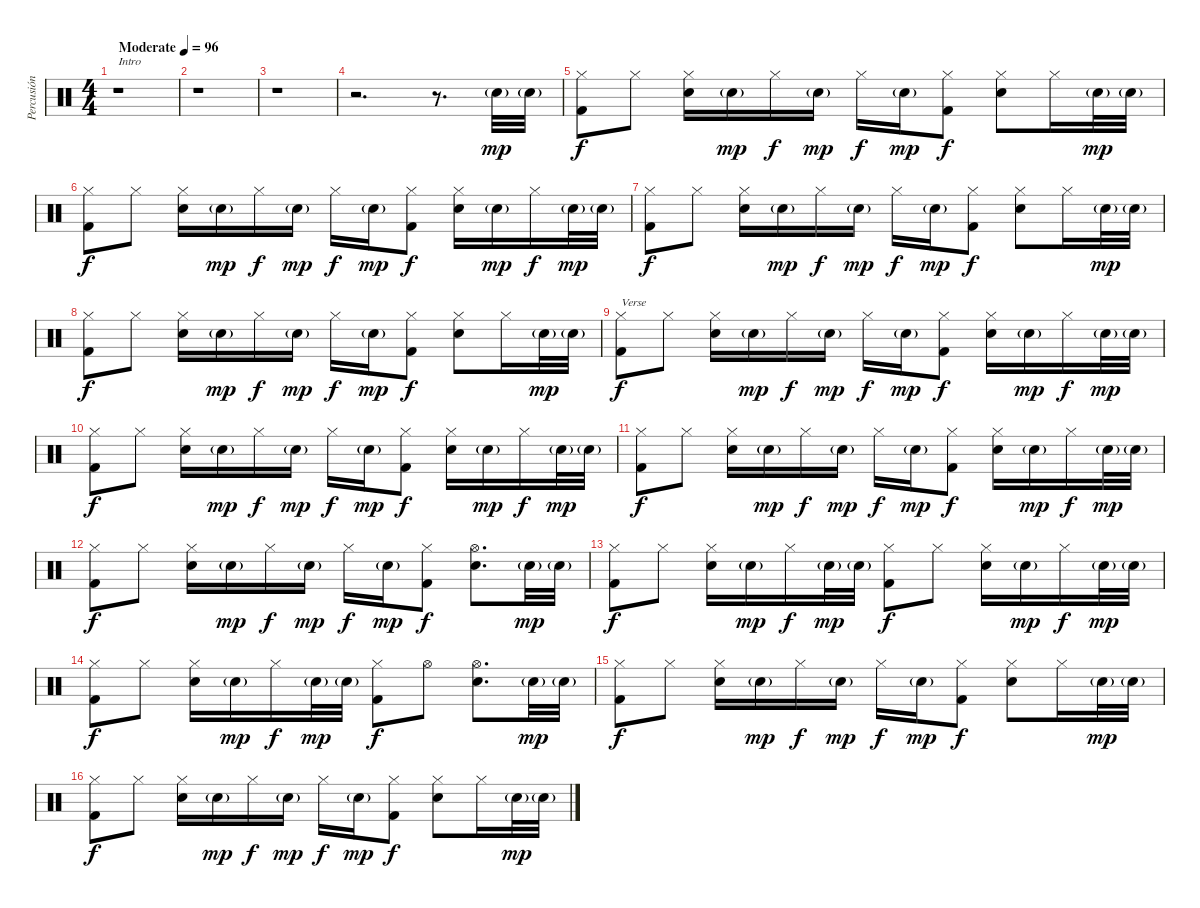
\track ("Percusión" "Percusión") {instrument percussion}
\staff {score}
\articulation defaults
\ts (4 4)
\tempo (96 "Moderate")
\clef neutral
\ks c
r.1{txt "Intro" dy mp} |
r.1 |
r.1 |
r.2{d} r.8{d} "Snare (hit) 2"{g}.32 "Snare (hit) 2"{g}.32 |
("Hi-Hat (closed)" "Kick (hit) 2").8{dy f} "Hi-Hat (closed)".8 ("Hi-Hat (closed)" "Snare (hit) 2").16 "Snare (hit) 2"{g}.16{dy mp} "Hi-Hat (closed)".16{dy f} "Snare (hit) 2"{g}.16{dy mp} "Hi-Hat (closed)".16{dy f} "Snare (hit) 2"{g}.16{dy mp} ("Hi-Hat (closed)" "Kick (hit) 2").8{dy f} ("Hi-Hat (closed)" "Snare (hit) 2").8 "Hi-Hat (closed)".16 "Snare (hit) 2"{g}.32{dy mp} "Snare (hit) 2"{g}.32 |
("Hi-Hat (closed)" "Kick (hit) 2").8{dy f} "Hi-Hat (closed)".8 ("Hi-Hat (closed)" "Snare (hit) 2").16 "Snare (hit) 2"{g}.16{dy mp} "Hi-Hat (closed)".16{dy f} "Snare (hit) 2"{g}.16{dy mp} "Hi-Hat (closed)".16{dy f} "Snare (hit) 2"{g}.16{dy mp} ("Hi-Hat (closed)" "Kick (hit) 2").8{dy f} ("Hi-Hat (closed)" "Snare (hit) 2").16 "Snare (hit) 2"{g}.16{dy mp} "Hi-Hat (closed)".16{dy f} "Snare (hit) 2"{g}.32{dy mp} "Snare (hit) 2"{g}.32 |
("Hi-Hat (closed)" "Kick (hit) 2").8{dy f} "Hi-Hat (closed)".8 ("Hi-Hat (closed)" "Snare (hit) 2").16 "Snare (hit) 2"{g}.16{dy mp} "Hi-Hat (closed)".16{dy f} "Snare (hit) 2"{g}.16{dy mp} "Hi-Hat (closed)".16{dy f} "Snare (hit) 2"{g}.16{dy mp} ("Hi-Hat (closed)" "Kick (hit) 2").8{dy f} ("Hi-Hat (closed)" "Snare (hit) 2").8 "Hi-Hat (closed)".16 "Snare (hit) 2"{g}.32{dy mp} "Snare (hit) 2"{g}.32 |
("Hi-Hat (closed)" "Kick (hit) 2").8{dy f} "Hi-Hat (closed)".8 ("Hi-Hat (closed)" "Snare (hit) 2").16 "Snare (hit) 2"{g}.16{dy mp} "Hi-Hat (closed)".16{dy f} "Snare (hit) 2"{g}.16{dy mp} "Hi-Hat (closed)".16{dy f} "Snare (hit) 2"{g}.16{dy mp} ("Hi-Hat (closed)" "Kick (hit) 2").8{dy f} ("Hi-Hat (closed)" "Snare (hit) 2").8 "Hi-Hat (closed)".16 "Snare (hit) 2"{g}.32{dy mp} "Snare (hit) 2"{g}.32 |
("Hi-Hat (closed)" "Kick (hit) 2").8{txt "Verse" dy f} "Hi-Hat (closed)".8 ("Hi-Hat (closed)" "Snare (hit) 2").16 "Snare (hit) 2"{g}.16{dy mp} "Hi-Hat (closed)".16{dy f} "Snare (hit) 2"{g}.16{dy mp} "Hi-Hat (closed)".16{dy f} "Snare (hit) 2"{g}.16{dy mp} ("Hi-Hat (closed)" "Kick (hit) 2").8{dy f} ("Hi-Hat (closed)" "Snare (hit) 2").16 "Snare (hit) 2"{g}.16{dy mp} "Hi-Hat (closed)".16{dy f} "Snare (hit) 2"{g}.32{dy mp} "Snare (hit) 2"{g}.32 |
("Hi-Hat (closed)" "Kick (hit) 2").8{dy f} "Hi-Hat (closed)".8 ("Hi-Hat (closed)" "Snare (hit) 2").16 "Snare (hit) 2"{g}.16{dy mp} "Hi-Hat (closed)".16{dy f} "Snare (hit) 2"{g}.16{dy mp} "Hi-Hat (closed)".16{dy f} "Snare (hit) 2"{g}.16{dy mp} ("Hi-Hat (closed)" "Kick (hit) 2").8{dy f} ("Hi-Hat (closed)" "Snare (hit) 2").16 "Snare (hit) 2"{g}.16{dy mp} "Hi-Hat (closed)".16{dy f} "Snare (hit) 2"{g}.32{dy mp} "Snare (hit) 2"{g}.32 |
("Hi-Hat (closed)" "Kick (hit) 2").8{dy f} "Hi-Hat (closed)".8 ("Hi-Hat (closed)" "Snare (hit) 2").16 "Snare (hit) 2"{g}.16{dy mp} "Hi-Hat (closed)".16{dy f} "Snare (hit) 2"{g}.16{dy mp} "Hi-Hat (closed)".16{dy f} "Snare (hit) 2"{g}.16{dy mp} ("Hi-Hat (closed)" "Kick (hit) 2").8{dy f} ("Hi-Hat (closed)" "Snare (hit) 2").16 "Snare (hit) 2"{g}.16{dy mp} "Hi-Hat (closed)".16{dy f} "Snare (hit) 2"{g}.32{dy mp} "Snare (hit) 2"{g}.32 |
("Hi-Hat (closed)" "Kick (hit) 2").8{dy f} "Hi-Hat (closed)".8 ("Hi-Hat (closed)" "Snare (hit) 2").16 "Snare (hit) 2"{g}.16{dy mp} "Hi-Hat (closed)".16{dy f} "Snare (hit) 2"{g}.16{dy mp} "Hi-Hat (closed)".16{dy f} "Snare (hit) 2"{g}.16{dy mp} ("Hi-Hat (closed)" "Kick (hit) 2").8{dy f} ("Hi-Hat (open)" "Snare (hit) 2").8{d} "Snare (hit) 2"{g}.32{dy mp} "Snare (hit) 2"{g}.32 |
("Hi-Hat (closed)" "Kick (hit) 2").8{dy f} "Hi-Hat (closed)".8 ("Hi-Hat (closed)" "Snare (hit) 2").16 "Snare (hit) 2"{g}.16{dy mp} "Hi-Hat (closed)".16{dy f} "Snare (hit) 2"{g}.32{dy mp} "Snare (hit) 2"{g}.32 ("Hi-Hat (closed)" "Kick (hit) 2").8{dy f} "Hi-Hat (closed)".8 ("Hi-Hat (closed)" "Snare (hit) 2").16 "Snare (hit) 2"{g}.16{dy mp} "Hi-Hat (closed)".16{dy f} "Snare (hit) 2"{g}.32{dy mp} "Snare (hit) 2"{g}.32 |
("Hi-Hat (closed)" "Kick (hit) 2").8{dy f} "Hi-Hat (closed)".8 ("Hi-Hat (closed)" "Snare (hit) 2").16 "Snare (hit) 2"{g}.16{dy mp} "Hi-Hat (closed)".16{dy f} "Snare (hit) 2"{g}.32{dy mp} "Snare (hit) 2"{g}.32 ("Hi-Hat (closed)" "Kick (hit) 2").8{dy f} "Hi-Hat (open)".8 ("Hi-Hat (open)" "Snare (hit) 2").8{d} "Snare (hit) 2"{g}.32{dy mp} "Snare (hit) 2"{g}.32 |
("Hi-Hat (closed)" "Kick (hit) 2").8{dy f} "Hi-Hat (closed)".8 ("Hi-Hat (closed)" "Snare (hit) 2").16 "Snare (hit) 2"{g}.16{dy mp} "Hi-Hat (closed)".16{dy f} "Snare (hit) 2"{g}.16{dy mp} "Hi-Hat (closed)".16{dy f} "Snare (hit) 2"{g}.16{dy mp} ("Hi-Hat (closed)" "Kick (hit) 2").8{dy f} ("Hi-Hat (closed)" "Snare (hit) 2").8 "Hi-Hat (closed)".16 "Snare (hit) 2"{g}.32{dy mp} "Snare (hit) 2"{g}.32 |
("Hi-Hat (closed)" "Kick (hit) 2").8{dy f} "Hi-Hat (closed)".8 ("Hi-Hat (closed)" "Snare (hit) 2").16 "Snare (hit) 2"{g}.16{dy mp} "Hi-Hat (closed)".16{dy f} "Snare (hit) 2"{g}.16{dy mp} "Hi-Hat (closed)".16{dy f} "Snare (hit) 2"{g}.16{dy mp} ("Hi-Hat (closed)" "Kick (hit) 2").8{dy f} ("Hi-Hat (closed)" "Snare (hit) 2").8 "Hi-Hat (closed)".16 "Snare (hit) 2"{g}.32{dy mp} "Snare (hit) 2"{g}.32
